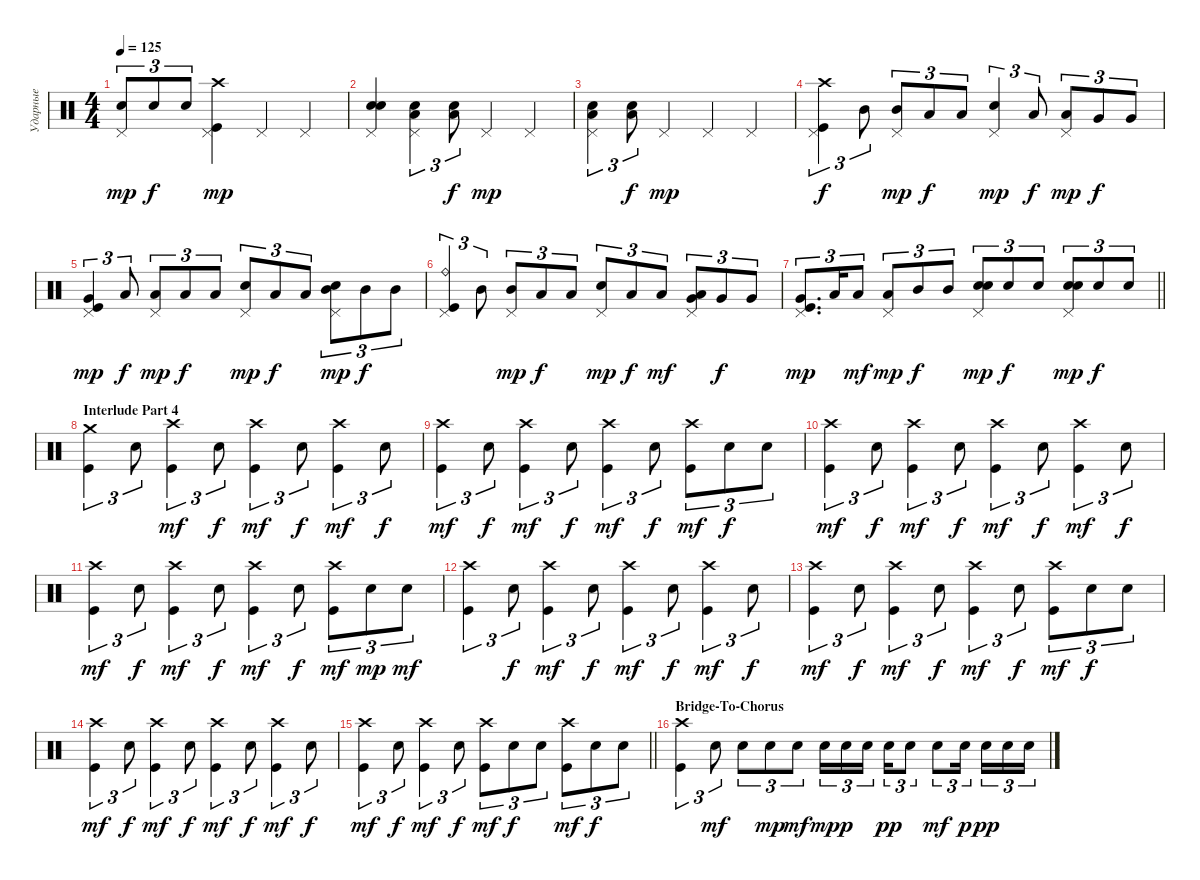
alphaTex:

\track ("Ударные" "Ударные") {instrument percussion}
\staff {score}
\articulation defaults
\ts (4 4)
\tempo 125
\clef neutral
\ks c
("Snare (hit) 2" "Pedal Hi-Hat (hit)").8{tu (3 2) dy mp} "Snare (hit) 2".8{tu (3 2) dy f} "Snare (hit) 2".8{tu (3 2)} ("Kick (hit)" "Crash high (hit)" "Pedal Hi-Hat (hit)").4{dy mp} "Pedal Hi-Hat (hit)".4 "Pedal Hi-Hat (hit)".4 |
("Snare (hit) 2" "Snare (hit) 2" "Pedal Hi-Hat (hit)").4{bd 120} ("Snare (hit) 2" "Low Tom (hit)" "Pedal Hi-Hat (hit)").4{tu (3 2)} ("Snare (hit) 2" "Low Tom (hit)").8{tu (3 2) dy f} "Pedal Hi-Hat (hit)".4{dy mp} "Pedal Hi-Hat (hit)".4 |
("Pedal Hi-Hat (hit)" "Snare (hit) 2" "Low Tom (hit)").4{tu (3 2)} ("Low Tom (hit)" "Snare (hit) 2").8{tu (3 2) dy f} "Pedal Hi-Hat (hit)".4{dy mp} "Pedal Hi-Hat (hit)".4 "Pedal Hi-Hat (hit)".4 |
("Kick (hit)" "Pedal Hi-Hat (hit)" "Crash high (hit)").4{tu (3 2) dy f} "Mid Tom (hit)".8{tu (3 2)} ("Mid Tom (hit)" "Pedal Hi-Hat (hit)").8{tu (3 2) dy mp} "Low Tom (hit)".8{tu (3 2) dy f} "Low Tom (hit)".8{tu (3 2)} ("Snare (hit) 2" "Pedal Hi-Hat (hit)").4{tu (3 2) dy mp} "Low Tom (hit)".8{tu (3 2) dy f} ("Low Tom (hit)" "Pedal Hi-Hat (hit)").8{tu (3 2) dy mp} "Very Low Tom (hit)".8{tu (3 2) dy f} "Very Low Tom (hit)".8{tu (3 2)} |
("Very Low Tom (hit)" "Kick (hit)" "Pedal Hi-Hat (hit)").4{tu (3 2) dy mp} "Low Tom (hit)".8{tu (3 2) dy f} ("Low Tom (hit)" "Pedal Hi-Hat (hit)").8{tu (3 2) dy mp} "Low Tom (hit)".8{tu (3 2) dy f} "Low Tom (hit)".8{tu (3 2)} ("Snare (hit) 2" "Pedal Hi-Hat (hit)").8{tu (3 2) dy mp} "Low Tom (hit)".8{tu (3 2) dy f} "Low Tom (hit)".8{tu (3 2)} ("Mid Tom (hit)" "Snare (hit) 2" "Pedal Hi-Hat (hit)").8{tu (3 2) bd 120 dy mp} "Mid Tom (hit)".8{tu (3 2) dy f} "Mid Tom (hit)".8{tu (3 2)} |
("Kick (hit)" "Pedal Hi-Hat (hit)" "Ride (bell)").4{tu (3 2)} "Mid Tom (hit)".8{tu (3 2)} ("Mid Tom (hit)" "Pedal Hi-Hat (hit)").8{tu (3 2) dy mp} "Low Tom (hit)".8{tu (3 2) dy f} "Low Tom (hit)".8{tu (3 2)} ("Snare (hit) 2" "Pedal Hi-Hat (hit)").8{tu (3 2) dy mp} "Low Tom (hit)".8{tu (3 2) dy f} "Low Tom (hit)".8{tu (3 2) dy mf} ("Very Low Tom (hit)" "Pedal Hi-Hat (hit)" "Low Tom (hit)").8{tu (3 2) bd 60} "Very Low Tom (hit)".8{tu (3 2) dy f} "Very Low Tom (hit)".8{tu (3 2)} |
\barLineRight lightlight
("Very Low Tom (hit)" "Kick (hit)" "Pedal Hi-Hat (hit)").8{d tu (3 2) dy mp} "Low Tom (hit)".16{tu (3 2)} "Low Tom (hit)".8{tu (3 2) dy mf} ("Low Tom (hit)" "Pedal Hi-Hat (hit)").8{tu (3 2) dy mp} "Mid Tom (hit)".8{tu (3 2) dy f} "Mid Tom (hit)".8{tu (3 2)} ("Snare (hit) 2" "Snare (hit) 2" "Pedal Hi-Hat (hit)").8{tu (3 2) bd 120 dy mp} "Snare (hit) 2".8{tu (3 2) dy f} "Snare (hit) 2".8{tu (3 2)} ("Snare (hit) 2" "Pedal Hi-Hat (hit)" "Snare (hit) 2").8{tu (3 2) bd 120 dy mp} "Snare (hit) 2".8{tu (3 2) dy f} "Snare (hit) 2".8{tu (3 2)} |
\section ("" "Interlude Part 4")
("Kick (hit)" "Crash medium (hit)").4{tu (3 2)} "Snare (hit) 2".8{tu (3 2)} ("Kick (hit)" "Crash high (hit)").4{tu (3 2) dy mf} "Snare (hit) 2".8{tu (3 2) dy f} ("Kick (hit)" "Crash high (hit)").4{tu (3 2) dy mf} "Snare (hit) 2".8{tu (3 2) dy f} ("Kick (hit)" "Crash high (hit)").4{tu (3 2) dy mf} "Snare (hit) 2".8{tu (3 2) dy f} |
("Kick (hit)" "Crash high (hit)").4{tu (3 2) dy mf} "Snare (hit) 2".8{tu (3 2) dy f} ("Kick (hit)" "Crash high (hit)").4{tu (3 2) dy mf} "Snare (hit) 2".8{tu (3 2) dy f} ("Kick (hit)" "Crash high (hit)").4{tu (3 2) dy mf} "Snare (hit) 2".8{tu (3 2) dy f} ("Kick (hit)" "Crash high (hit)").8{tu (3 2) dy mf} "Snare (hit) 2".8{tu (3 2) dy f} "Snare (hit) 2".8{tu (3 2)} |
("Kick (hit)" "Crash high (hit)").4{tu (3 2) dy mf} "Snare (hit) 2".8{tu (3 2) dy f} ("Kick (hit)" "Crash high (hit)").4{tu (3 2) dy mf} "Snare (hit) 2".8{tu (3 2) dy f} ("Kick (hit)" "Crash high (hit)").4{tu (3 2) dy mf} "Snare (hit) 2".8{tu (3 2) dy f} ("Kick (hit)" "Crash high (hit)").4{tu (3 2) dy mf} "Snare (hit) 2".8{tu (3 2) dy f} |
("Kick (hit)" "Crash high (hit)").4{tu (3 2) dy mf} "Snare (hit) 2".8{tu (3 2) dy f} ("Kick (hit)" "Crash high (hit)").4{tu (3 2) dy mf} "Snare (hit) 2".8{tu (3 2) dy f} ("Kick (hit)" "Crash high (hit)").4{tu (3 2) dy mf} "Snare (hit) 2".8{tu (3 2) dy f} ("Kick (hit)" "Crash high (hit)").8{tu (3 2) dy mf} "Snare (hit) 2".8{tu (3 2) dy mp} "Snare (hit) 2".8{tu (3 2) dy mf} |
("Kick (hit)" "Crash high (hit)").4{tu (3 2)} "Snare (hit) 2".8{tu (3 2) dy f} ("Kick (hit)" "Crash high (hit)").4{tu (3 2) dy mf} "Snare (hit) 2".8{tu (3 2) dy f} ("Kick (hit)" "Crash high (hit)").4{tu (3 2) dy mf} "Snare (hit) 2".8{tu (3 2) dy f} ("Kick (hit)" "Crash high (hit)").4{tu (3 2) dy mf} "Snare (hit) 2".8{tu (3 2) dy f} |
("Kick (hit)" "Crash high (hit)").4{tu (3 2) dy mf} "Snare (hit) 2".8{tu (3 2) dy f} ("Kick (hit)" "Crash high (hit)").4{tu (3 2) dy mf} "Snare (hit) 2".8{tu (3 2) dy f} ("Kick (hit)" "Crash high (hit)").4{tu (3 2) dy mf} "Snare (hit) 2".8{tu (3 2) dy f} ("Kick (hit)" "Crash high (hit)").8{tu (3 2) dy mf} "Snare (hit) 2".8{tu (3 2) dy f} "Snare (hit) 2".8{tu (3 2)} |
("Kick (hit)" "Crash high (hit)").4{tu (3 2) dy mf} "Snare (hit) 2".8{tu (3 2) dy f} ("Kick (hit)" "Crash high (hit)").4{tu (3 2) dy mf} "Snare (hit) 2".8{tu (3 2) dy f} ("Kick (hit)" "Crash high (hit)").4{tu (3 2) dy mf} "Snare (hit) 2".8{tu (3 2) dy f} ("Kick (hit)" "Crash high (hit)").4{tu (3 2) dy mf} "Snare (hit) 2".8{tu (3 2) dy f} |
\barLineRight lightlight
("Kick (hit)" "Crash high (hit)").4{tu (3 2) dy mf} "Snare (hit) 2".8{tu (3 2) dy f} ("Kick (hit)" "Crash high (hit)").4{tu (3 2) dy mf} "Snare (hit) 2".8{tu (3 2) dy f} ("Kick (hit)" "Crash high (hit)").8{tu (3 2) dy mf} "Snare (hit) 2".8{tu (3 2) dy f} "Snare (hit) 2".8{tu (3 2)} ("Kick (hit)" "Crash high (hit)").8{tu (3 2) dy mf} "Snare (hit) 2".8{tu (3 2) dy f} "Snare (hit) 2".8{tu (3 2)} |
\section ("" "Bridge-To-Chorus")
("Kick (hit)" "Crash high (hit)").4{tu (3 2)} "Snare (hit) 2".8{tu (3 2) dy mf} "Snare (hit) 2".8{tu (3 2)} "Snare (hit) 2".8{tu (3 2) dy mp} "Snare (hit) 2".8{tu (3 2) dy mf} "Snare (hit) 2".16{tu (3 2) dy mp} "Snare (hit) 2".16{tu (3 2) dy p} "Snare (hit) 2".16{tu (3 2) beam splitsecondary} "Snare (hit) 2".16{tu (3 2) dy pp} "Snare (hit) 2".8{tu (3 2)} "Snare (hit) 2".8{tu (3 2) dy mf} "Snare (hit) 2".16{tu (3 2) dy p beam splitsecondary} "Snare (hit) 2".16{tu (3 2) dy pp} "Snare (hit) 2".16{tu (3 2)} "Snare (hit) 2".16{tu (3 2)}
